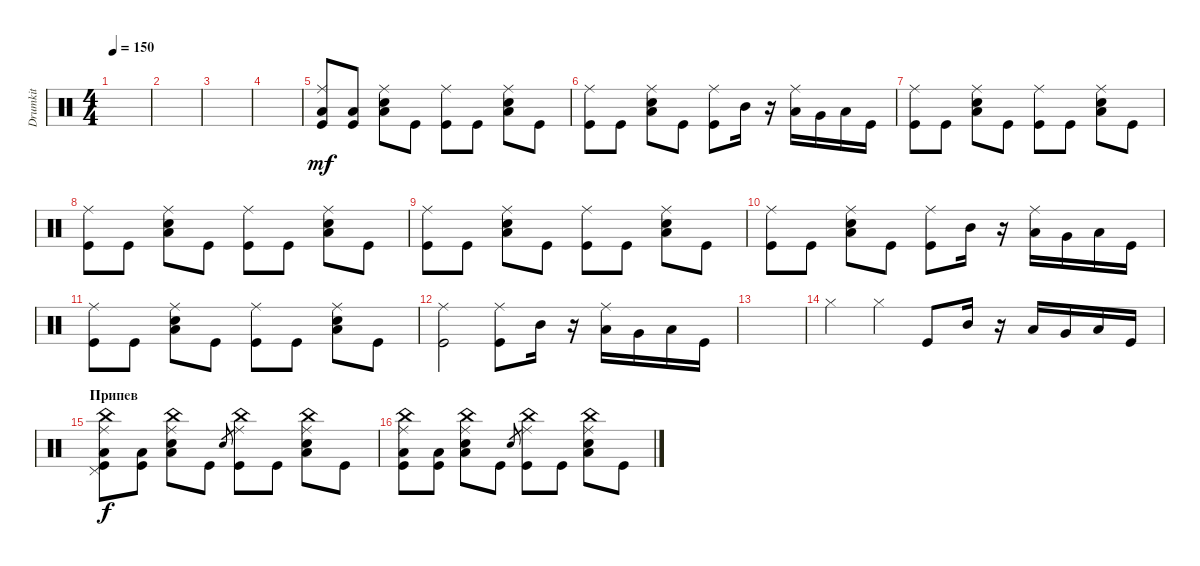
\track ("Drumkit" "Drumkit") {instrument percussion}
\staff {score}
\articulation defaults
\ts (4 4)
\tempo 150
\clef neutral
\ks c
|
|
|
|
("Kick (hit)" "Ride (middle)" "Low Floor Tom (hit)").8{dy mf} ("Kick (hit)" "Low Floor Tom (hit)").8 ("Snare (hit) 2" "Ride (middle)" "Low Floor Tom (hit)").8 "Kick (hit)".8 ("Kick (hit)" "Ride (middle)").8 "Kick (hit)".8 ("Snare (hit) 2" "Ride (middle)" "Low Floor Tom (hit)").8 "Kick (hit)".8 |
("Kick (hit)" "Ride (middle)").8 "Kick (hit)".8 ("Snare (hit) 2" "Ride (middle)" "Low Floor Tom (hit)").8 "Kick (hit)".8 ("Kick (hit)" "Ride (middle)").8 "Mid Tom (hit)".16 r.16 ("Low Tom (hit)" "Ride (middle)").16 "Very Low Tom (hit)".16 "Low Floor Tom (hit)".16 "Kick (hit)".16 |
("Kick (hit)" "Ride (middle)").8 "Kick (hit)".8 ("Snare (hit) 2" "Ride (middle)" "Low Floor Tom (hit)").8 "Kick (hit)".8 ("Kick (hit)" "Ride (middle)").8 "Kick (hit)".8 ("Snare (hit) 2" "Ride (middle)" "Low Floor Tom (hit)").8 "Kick (hit)".8 |
("Kick (hit)" "Ride (middle)").8 "Kick (hit)".8 ("Snare (hit) 2" "Ride (middle)" "Low Floor Tom (hit)").8 "Kick (hit)".8 ("Kick (hit)" "Ride (middle)").8 "Kick (hit)".8 ("Snare (hit) 2" "Ride (middle)" "Low Floor Tom (hit)").8 "Kick (hit)".8 |
("Kick (hit)" "Ride (middle)").8 "Kick (hit)".8 ("Snare (hit) 2" "Ride (middle)" "Low Floor Tom (hit)").8 "Kick (hit)".8 ("Kick (hit)" "Ride (middle)").8 "Kick (hit)".8 ("Snare (hit) 2" "Ride (middle)" "Low Floor Tom (hit)").8 "Kick (hit)".8 |
("Kick (hit)" "Ride (middle)").8 "Kick (hit)".8 ("Snare (hit) 2" "Ride (middle)" "Low Floor Tom (hit)").8 "Kick (hit)".8 ("Kick (hit)" "Ride (middle)").8 "Mid Tom (hit)".16 r.16 ("Low Tom (hit)" "Ride (middle)").16 "Very Low Tom (hit)".16 "Low Floor Tom (hit)".16 "Kick (hit)".16 |
("Kick (hit)" "Ride (middle)").8 "Kick (hit)".8 ("Snare (hit) 2" "Ride (middle)" "Low Floor Tom (hit)").8 "Kick (hit)".8 ("Kick (hit)" "Ride (middle)").8 "Kick (hit)".8 ("Snare (hit) 2" "Ride (middle)" "Low Floor Tom (hit)").8 "Kick (hit)".8 |
("Kick (hit)" "Ride (middle)").2 ("Kick (hit)" "Ride (middle)").8 "Mid Tom (hit)".16 r.16 ("Low Tom (hit)" "Ride (middle)").16 "Very Low Tom (hit)".16 "Low Floor Tom (hit)".16 "Kick (hit)".16 |
|
"Hi-Hat (closed)".4 "Hi-Hat (closed)".4 "Kick (hit)".8 "Mid Tom (hit)".16 r.16 "Low Tom (hit)".16 "Very Low Tom (hit)".16 "Low Floor Tom (hit)".16 "Kick (hit)".16 |
\section ("" "Припев")
("Kick (hit)" "Ride (middle)" "Low Floor Tom (hit)" "Pedal Hi-Hat (hit)" "China (hit)").8{dy f} ("Kick (hit)" "Low Floor Tom (hit)").8 ("Snare (hit) 2" "Ride (middle)" "Low Floor Tom (hit)" "China (hit)").8 "Kick (hit)".8 "Snare (hit)".8{gr} ("Kick (hit)" "Ride (middle)" "China (hit)").8 "Kick (hit)".8 ("Snare (hit) 2" "Ride (middle)" "Low Floor Tom (hit)" "China (hit)").8 "Kick (hit)".8 |
("Kick (hit)" "Ride (middle)" "Low Floor Tom (hit)" "China (hit)").8 ("Kick (hit)" "Low Floor Tom (hit)").8 ("Snare (hit) 2" "Ride (middle)" "Low Floor Tom (hit)" "China (hit)").8 "Kick (hit)".8 "Snare (hit)".8{gr} ("Kick (hit)" "Ride (middle)" "China (hit)").8 "Kick (hit)".8 ("Snare (hit) 2" "Ride (middle)" "Low Floor Tom (hit)" "China (hit)").8 "Kick (hit)".8
